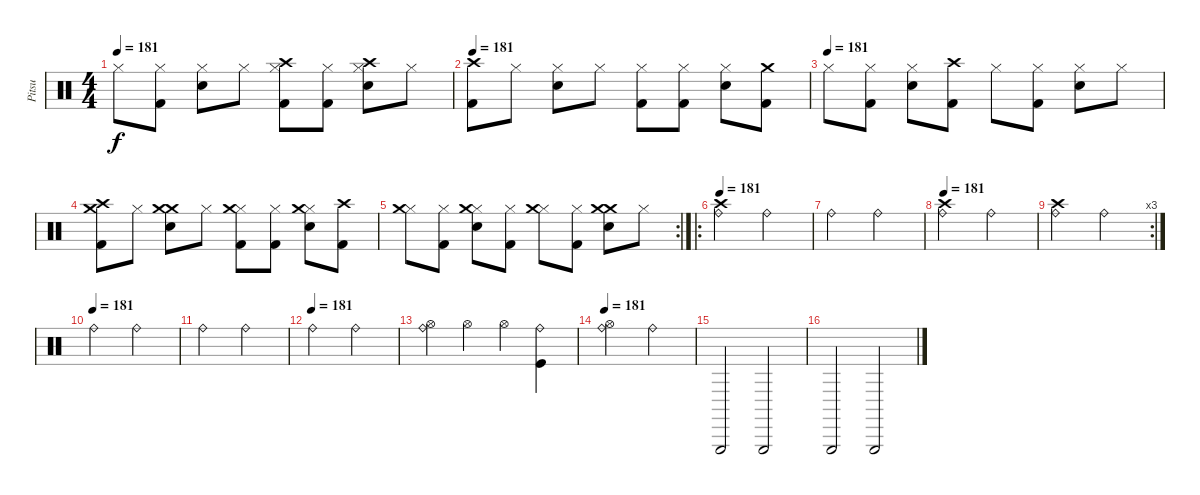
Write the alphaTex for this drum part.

\track ("Pitsu" "Pitsu") {instrument percussion}
\staff {score}
\articulation defaults
\ts (4 4)
\tempo 181
\clef neutral
\ks c "Hi-Hat (closed)".8{dy f}
("Hi-Hat (closed)" "Kick (hit) 2").8 ("Hi-Hat (closed)" "Electric Snare (hit)").8 "Hi-Hat (closed)".8 ("Hi-Hat (closed)" "Crash high (hit)" "Kick (hit) 2").8 ("Hi-Hat (closed)" "Kick (hit) 2").8 ("Hi-Hat (closed)" "Crash high (hit)" "Electric Snare (hit)").8 "Hi-Hat (closed)".8 |
\tempo 181
("Crash high (hit)" "Kick (hit) 2").8 "Hi-Hat (closed)".8 ("Hi-Hat (closed)" "Electric Snare (hit)").8 "Hi-Hat (closed)".8 ("Hi-Hat (closed)" "Kick (hit) 2").8 ("Hi-Hat (closed)" "Kick (hit) 2").8 ("Hi-Hat (closed)" "Electric Snare (hit)").8 ("Crash medium (hit)" "Kick (hit) 2").8 |
\tempo (181)
"Hi-Hat (closed)".8 ("Hi-Hat (closed)" "Kick (hit) 2").8 ("Hi-Hat (closed)" "Electric Snare (hit)").8 ("Crash high (hit)" "Kick (hit) 2").8 "Hi-Hat (closed)".8 ("Hi-Hat (closed)" "Kick (hit) 2").8 ("Hi-Hat (closed)" "Electric Snare (hit)").8 "Hi-Hat (closed)".8 |
("Crash high (hit)" "Crash medium (hit)" "Kick (hit) 2").8 "Hi-Hat (closed)".8 ("Crash medium (hit)" "Crash medium (hit)" "Electric Snare (hit)").8 "Hi-Hat (closed)".8 ("Hi-Hat (closed)" "Crash medium (hit)" "Kick (hit) 2").8 ("Hi-Hat (closed)" "Kick (hit) 2").8 ("Hi-Hat (closed)" "Crash medium (hit)" "Electric Snare (hit)").8 ("Crash high (hit)" "Kick (hit) 2").8 |
\rc 2
("Hi-Hat (closed)" "Crash medium (hit)").8 ("Hi-Hat (closed)" "Kick (hit) 2").8 ("Hi-Hat (closed)" "Crash medium (hit)" "Electric Snare (hit)").8 ("Hi-Hat (closed)" "Kick (hit) 2").8 ("Hi-Hat (closed)" "Crash medium (hit)").8 ("Hi-Hat (closed)" "Kick (hit) 2").8 ("Crash medium (hit)" "Crash medium (hit)" "Electric Snare (hit)").8 "Hi-Hat (closed)".8 |
\ro
\tempo 181
("Crash high (hit)" "Ride (bell)").2 "Ride (bell)".2 |
"Ride (bell)".2 "Ride (bell)".2 |
\tempo 181
("Crash high (hit)" "Ride (bell)").2 "Ride (bell)".2 |
\rc 3
("Crash high (hit)" "Ride (bell)").2 "Ride (bell)".2 |
\tempo (181)
"Ride (bell)".2 "Ride (bell)".2 |
"Ride (bell)".2 "Ride (bell)".2 |
\tempo (181)
"Ride (bell)".2 "Ride (bell)".2 |
("Hi-Hat (open)" "Ride (bell)").4 "Hi-Hat (open)".4 "Hi-Hat (open)".4 ("Ride (bell)" "Kick (hit)").4 |
\tempo 181
("Hi-Hat (open)" "Ride (bell)").2 "Ride (bell)".2 |
"Triangle (hit)".2 "Triangle (hit)".2 |
"Triangle (hit)".2 "Triangle (hit)".2
